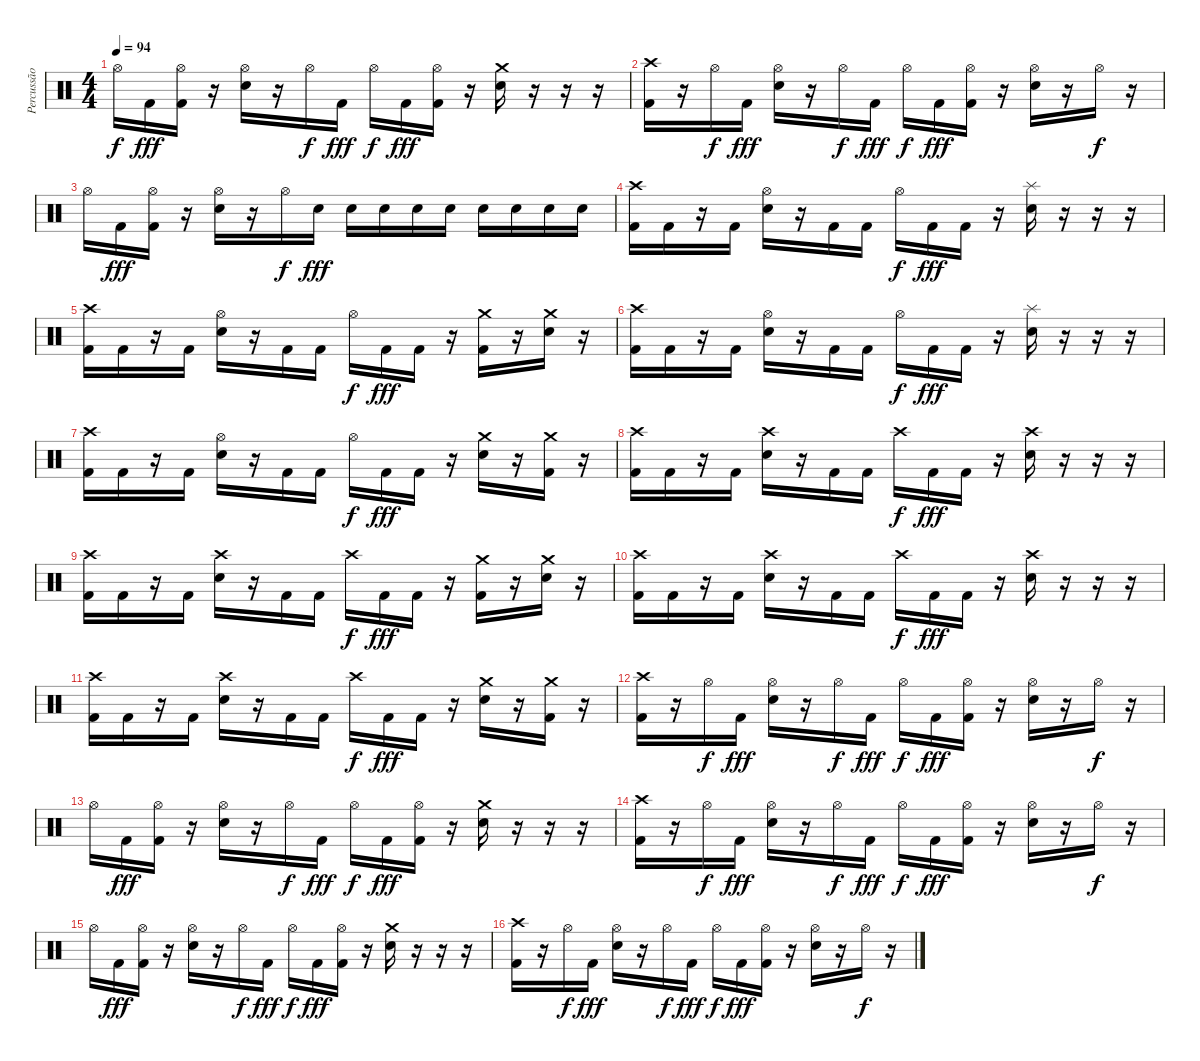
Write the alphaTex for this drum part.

\track ("Percussão" "Percussão") {instrument percussion}
\staff {score}
\articulation defaults
\ts (4 4)
\tempo 94
\clef neutral
\ks c "Hi-Hat (open)".16{dy f} "Kick (hit) 2".16{dy fff}
("Hi-Hat (open)" "Kick (hit) 2").16 r.16 ("Hi-Hat (open)" "Electric Snare (hit)").16 r.16 "Hi-Hat (open)".16{dy f} "Kick (hit) 2".16{dy fff} "Hi-Hat (open)".16{dy f} "Kick (hit) 2".16{dy fff} ("Hi-Hat (open)" "Kick (hit) 2").16 r.16 ("Crash medium (hit)" "Electric Snare (hit)").16 r.16 r.16 r.16 |
("Crash high (hit)" "Kick (hit) 2").16 r.16 "Hi-Hat (open)".16{dy f} "Kick (hit) 2".16{dy fff} ("Hi-Hat (open)" "Electric Snare (hit)").16 r.16 "Hi-Hat (open)".16{dy f} "Kick (hit) 2".16{dy fff} "Hi-Hat (open)".16{dy f} "Kick (hit) 2".16{dy fff} ("Hi-Hat (open)" "Kick (hit) 2").16 r.16 ("Hi-Hat (open)" "Electric Snare (hit)").16 r.16 "Hi-Hat (open)".16{dy f} r.16 |
"Hi-Hat (open)".16 "Kick (hit) 2".16{dy fff} ("Hi-Hat (open)" "Kick (hit) 2").16 r.16 ("Hi-Hat (open)" "Electric Snare (hit)").16 r.16 "Hi-Hat (open)".16{dy f} "Electric Snare (hit)".16{dy fff} "Electric Snare (hit)".16 "Electric Snare (hit)".16 "Electric Snare (hit)".16 "Electric Snare (hit)".16 "Electric Snare (hit)".16 "Electric Snare (hit)".16 "Electric Snare (hit)".16 "Electric Snare (hit)".16 |
("Crash high (hit)" "Kick (hit) 2").16 "Kick (hit) 2".16 r.16 "Kick (hit) 2".16 ("Hi-Hat (open)" "Electric Snare (hit)").16 r.16 "Kick (hit) 2".16 "Kick (hit) 2".16 "Hi-Hat (open)".16{dy f} "Kick (hit) 2".16{dy fff} "Kick (hit) 2".16 r.16 ("Splash (hit)" "Electric Snare (hit)").16 r.16 r.16 r.16 |
("Crash high (hit)" "Kick (hit) 2").16 "Kick (hit) 2".16 r.16 "Kick (hit) 2".16 ("Hi-Hat (open)" "Electric Snare (hit)").16 r.16 "Kick (hit) 2".16 "Kick (hit) 2".16 "Hi-Hat (open)".16{dy f} "Kick (hit) 2".16{dy fff} "Kick (hit) 2".16 r.16 ("Crash medium (hit)" "Kick (hit) 2").16 r.16 ("Crash medium (hit)" "Electric Snare (hit)").16 r.16 |
("Crash high (hit)" "Kick (hit) 2").16 "Kick (hit) 2".16 r.16 "Kick (hit) 2".16 ("Hi-Hat (open)" "Electric Snare (hit)").16 r.16 "Kick (hit) 2".16 "Kick (hit) 2".16 "Hi-Hat (open)".16{dy f} "Kick (hit) 2".16{dy fff} "Kick (hit) 2".16 r.16 ("Splash (hit)" "Electric Snare (hit)").16 r.16 r.16 r.16 |
("Crash high (hit)" "Kick (hit) 2").16 "Kick (hit) 2".16 r.16 "Kick (hit) 2".16 ("Hi-Hat (open)" "Electric Snare (hit)").16 r.16 "Kick (hit) 2".16 "Kick (hit) 2".16 "Hi-Hat (open)".16{dy f} "Kick (hit) 2".16{dy fff} "Kick (hit) 2".16 r.16 ("Crash medium (hit)" "Electric Snare (hit)").16 r.16 ("Crash medium (hit)" "Kick (hit) 2").16 r.16 |
("Crash high (hit)" "Kick (hit) 2").16 "Kick (hit) 2".16 r.16 "Kick (hit) 2".16 ("Crash high (hit)" "Electric Snare (hit)").16 r.16 "Kick (hit) 2".16 "Kick (hit) 2".16 "Crash high (hit)".16{dy f} "Kick (hit) 2".16{dy fff} "Kick (hit) 2".16 r.16 ("Crash high (hit)" "Electric Snare (hit)").16 r.16 r.16 r.16 |
("Crash high (hit)" "Kick (hit) 2").16 "Kick (hit) 2".16 r.16 "Kick (hit) 2".16 ("Crash high (hit)" "Electric Snare (hit)").16 r.16 "Kick (hit) 2".16 "Kick (hit) 2".16 "Crash high (hit)".16{dy f} "Kick (hit) 2".16{dy fff} "Kick (hit) 2".16 r.16 ("Crash medium (hit)" "Kick (hit) 2").16 r.16 ("Crash medium (hit)" "Electric Snare (hit)").16 r.16 |
("Crash high (hit)" "Kick (hit) 2").16 "Kick (hit) 2".16 r.16 "Kick (hit) 2".16 ("Crash high (hit)" "Electric Snare (hit)").16 r.16 "Kick (hit) 2".16 "Kick (hit) 2".16 "Crash high (hit)".16{dy f} "Kick (hit) 2".16{dy fff} "Kick (hit) 2".16 r.16 ("Crash high (hit)" "Electric Snare (hit)").16 r.16 r.16 r.16 |
("Crash high (hit)" "Kick (hit) 2").16 "Kick (hit) 2".16 r.16 "Kick (hit) 2".16 ("Crash high (hit)" "Electric Snare (hit)").16 r.16 "Kick (hit) 2".16 "Kick (hit) 2".16 "Crash high (hit)".16{dy f} "Kick (hit) 2".16{dy fff} "Kick (hit) 2".16 r.16 ("Crash medium (hit)" "Electric Snare (hit)").16 r.16 ("Crash medium (hit)" "Kick (hit) 2").16 r.16 |
("Crash high (hit)" "Kick (hit) 2").16 r.16 "Hi-Hat (open)".16{dy f} "Kick (hit) 2".16{dy fff} ("Hi-Hat (open)" "Electric Snare (hit)").16 r.16 "Hi-Hat (open)".16{dy f} "Kick (hit) 2".16{dy fff} "Hi-Hat (open)".16{dy f} "Kick (hit) 2".16{dy fff} ("Hi-Hat (open)" "Kick (hit) 2").16 r.16 ("Hi-Hat (open)" "Electric Snare (hit)").16 r.16 "Hi-Hat (open)".16{dy f} r.16 |
"Hi-Hat (open)".16 "Kick (hit) 2".16{dy fff} ("Hi-Hat (open)" "Kick (hit) 2").16 r.16 ("Hi-Hat (open)" "Electric Snare (hit)").16 r.16 "Hi-Hat (open)".16{dy f} "Kick (hit) 2".16{dy fff} "Hi-Hat (open)".16{dy f} "Kick (hit) 2".16{dy fff} ("Hi-Hat (open)" "Kick (hit) 2").16 r.16 ("Crash medium (hit)" "Electric Snare (hit)").16 r.16 r.16 r.16 |
("Crash high (hit)" "Kick (hit) 2").16 r.16 "Hi-Hat (open)".16{dy f} "Kick (hit) 2".16{dy fff} ("Hi-Hat (open)" "Electric Snare (hit)").16 r.16 "Hi-Hat (open)".16{dy f} "Kick (hit) 2".16{dy fff} "Hi-Hat (open)".16{dy f} "Kick (hit) 2".16{dy fff} ("Hi-Hat (open)" "Kick (hit) 2").16 r.16 ("Hi-Hat (open)" "Electric Snare (hit)").16 r.16 "Hi-Hat (open)".16{dy f} r.16 |
"Hi-Hat (open)".16 "Kick (hit) 2".16{dy fff} ("Hi-Hat (open)" "Kick (hit) 2").16 r.16 ("Hi-Hat (open)" "Electric Snare (hit)").16 r.16 "Hi-Hat (open)".16{dy f} "Kick (hit) 2".16{dy fff} "Hi-Hat (open)".16{dy f} "Kick (hit) 2".16{dy fff} ("Hi-Hat (open)" "Kick (hit) 2").16 r.16 ("Crash medium (hit)" "Electric Snare (hit)").16 r.16 r.16 r.16 |
("Crash high (hit)" "Kick (hit) 2").16 r.16 "Hi-Hat (open)".16{dy f} "Kick (hit) 2".16{dy fff} ("Hi-Hat (open)" "Electric Snare (hit)").16 r.16 "Hi-Hat (open)".16{dy f} "Kick (hit) 2".16{dy fff} "Hi-Hat (open)".16{dy f} "Kick (hit) 2".16{dy fff} ("Hi-Hat (open)" "Kick (hit) 2").16 r.16 ("Hi-Hat (open)" "Electric Snare (hit)").16 r.16 "Hi-Hat (open)".16{dy f} r.16
